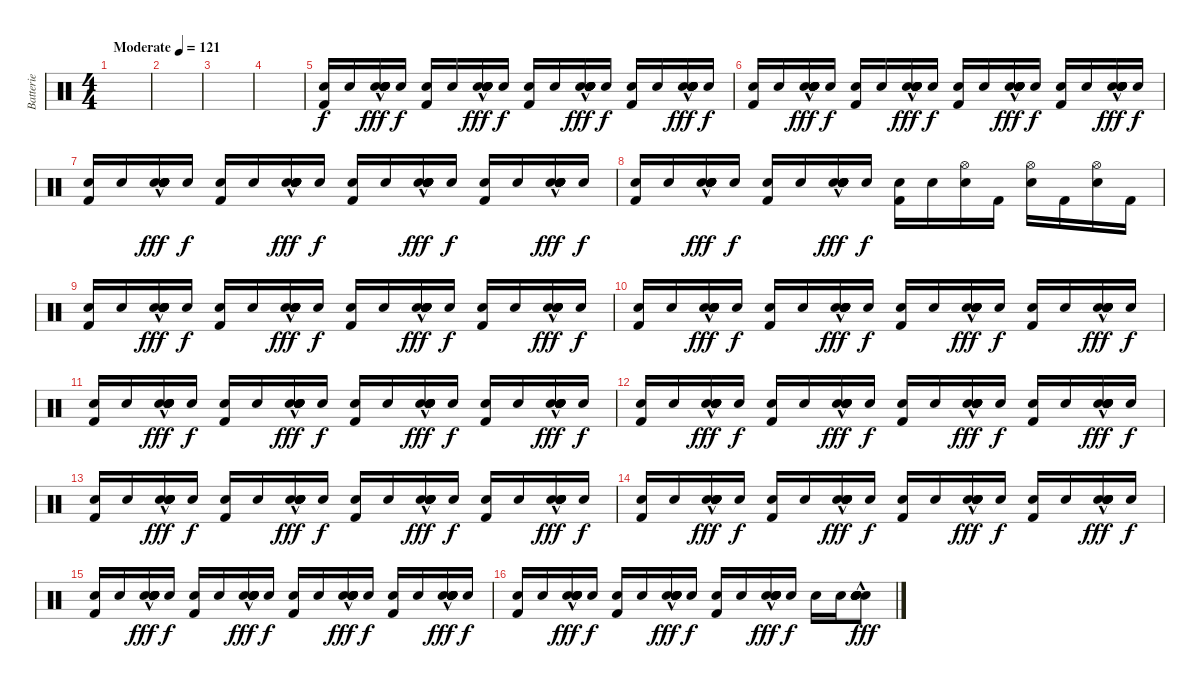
\track ("Batterie" "Batterie") {instrument percussion}
\staff {score}
\articulation defaults
\ts (4 4)
\tempo (121 "Moderate")
\clef neutral
\ks c
|
|
|
|
("Kick (hit) 2" "Electric Snare (hit)").16 "Electric Snare (hit)".16 ("Electric Snare (hit)"{hac} "Electric Snare (hit)"{hac} "Electric Snare (hit)"{hac} "Electric Snare (hit)"{hac} "Electric Snare (hit)"{hac} "Electric Snare (hit)"{hac}).16{dy fff} "Electric Snare (hit)".16{dy f} ("Kick (hit) 2" "Electric Snare (hit)").16 "Electric Snare (hit)".16 ("Electric Snare (hit)"{hac} "Electric Snare (hit)"{hac} "Electric Snare (hit)"{hac} "Electric Snare (hit)"{hac} "Electric Snare (hit)"{hac} "Electric Snare (hit)"{hac}).16{dy fff} "Electric Snare (hit)".16{dy f} ("Kick (hit) 2" "Electric Snare (hit)").16 "Electric Snare (hit)".16 ("Electric Snare (hit)"{hac} "Electric Snare (hit)"{hac} "Electric Snare (hit)"{hac} "Electric Snare (hit)"{hac} "Electric Snare (hit)"{hac} "Electric Snare (hit)"{hac}).16{dy fff} "Electric Snare (hit)".16{dy f} ("Kick (hit) 2" "Electric Snare (hit)").16 "Electric Snare (hit)".16 ("Electric Snare (hit)"{hac} "Electric Snare (hit)"{hac} "Electric Snare (hit)"{hac} "Electric Snare (hit)"{hac} "Electric Snare (hit)"{hac} "Electric Snare (hit)"{hac}).16{dy fff} "Electric Snare (hit)".16{dy f} |
("Kick (hit) 2" "Electric Snare (hit)").16 "Electric Snare (hit)".16 ("Electric Snare (hit)"{hac} "Electric Snare (hit)"{hac} "Electric Snare (hit)"{hac} "Electric Snare (hit)"{hac} "Electric Snare (hit)"{hac} "Electric Snare (hit)"{hac}).16{dy fff} "Electric Snare (hit)".16{dy f} ("Kick (hit) 2" "Electric Snare (hit)").16 "Electric Snare (hit)".16 ("Electric Snare (hit)"{hac} "Electric Snare (hit)"{hac} "Electric Snare (hit)"{hac} "Electric Snare (hit)"{hac} "Electric Snare (hit)"{hac} "Electric Snare (hit)"{hac}).16{dy fff} "Electric Snare (hit)".16{dy f} ("Kick (hit) 2" "Electric Snare (hit)").16 "Electric Snare (hit)".16 ("Electric Snare (hit)"{hac} "Electric Snare (hit)"{hac} "Electric Snare (hit)"{hac} "Electric Snare (hit)"{hac} "Electric Snare (hit)"{hac} "Electric Snare (hit)"{hac}).16{dy fff} "Electric Snare (hit)".16{dy f} ("Kick (hit) 2" "Electric Snare (hit)").16 "Electric Snare (hit)".16 ("Electric Snare (hit)"{hac} "Electric Snare (hit)"{hac} "Electric Snare (hit)"{hac} "Electric Snare (hit)"{hac} "Electric Snare (hit)"{hac} "Electric Snare (hit)"{hac}).16{dy fff} "Electric Snare (hit)".16{dy f} |
("Kick (hit) 2" "Electric Snare (hit)").16 "Electric Snare (hit)".16 ("Electric Snare (hit)"{hac} "Electric Snare (hit)"{hac} "Electric Snare (hit)"{hac} "Electric Snare (hit)"{hac} "Electric Snare (hit)"{hac} "Electric Snare (hit)"{hac}).16{dy fff} "Electric Snare (hit)".16{dy f} ("Kick (hit) 2" "Electric Snare (hit)").16 "Electric Snare (hit)".16 ("Electric Snare (hit)"{hac} "Electric Snare (hit)"{hac} "Electric Snare (hit)"{hac} "Electric Snare (hit)"{hac} "Electric Snare (hit)"{hac} "Electric Snare (hit)"{hac}).16{dy fff} "Electric Snare (hit)".16{dy f} ("Kick (hit) 2" "Electric Snare (hit)").16 "Electric Snare (hit)".16 ("Electric Snare (hit)"{hac} "Electric Snare (hit)"{hac} "Electric Snare (hit)"{hac} "Electric Snare (hit)"{hac} "Electric Snare (hit)"{hac} "Electric Snare (hit)"{hac}).16{dy fff} "Electric Snare (hit)".16{dy f} ("Kick (hit) 2" "Electric Snare (hit)").16 "Electric Snare (hit)".16 ("Electric Snare (hit)"{hac} "Electric Snare (hit)"{hac} "Electric Snare (hit)"{hac} "Electric Snare (hit)"{hac} "Electric Snare (hit)"{hac} "Electric Snare (hit)"{hac}).16{dy fff} "Electric Snare (hit)".16{dy f} |
("Kick (hit) 2" "Electric Snare (hit)").16 "Electric Snare (hit)".16 ("Electric Snare (hit)"{hac} "Electric Snare (hit)"{hac} "Electric Snare (hit)"{hac} "Electric Snare (hit)"{hac} "Electric Snare (hit)"{hac} "Electric Snare (hit)"{hac}).16{dy fff} "Electric Snare (hit)".16{dy f} ("Kick (hit) 2" "Electric Snare (hit)").16 "Electric Snare (hit)".16 ("Electric Snare (hit)"{hac} "Electric Snare (hit)"{hac} "Electric Snare (hit)"{hac} "Electric Snare (hit)"{hac} "Electric Snare (hit)"{hac} "Electric Snare (hit)"{hac}).16{dy fff} "Electric Snare (hit)".16{dy f} ("Kick (hit) 2" "Electric Snare (hit)").16 "Electric Snare (hit)".16 ("Hi-Hat (open)" "Electric Snare (hit)").16 "Kick (hit) 2".16 ("Hi-Hat (open)" "Electric Snare (hit)").16 "Kick (hit) 2".16 ("Hi-Hat (open)" "Electric Snare (hit)").16 "Kick (hit) 2".16 |
("Kick (hit) 2" "Electric Snare (hit)").16 "Electric Snare (hit)".16 ("Electric Snare (hit)"{hac} "Electric Snare (hit)"{hac} "Electric Snare (hit)"{hac} "Electric Snare (hit)"{hac} "Electric Snare (hit)"{hac} "Electric Snare (hit)"{hac}).16{dy fff} "Electric Snare (hit)".16{dy f} ("Kick (hit) 2" "Electric Snare (hit)").16 "Electric Snare (hit)".16 ("Electric Snare (hit)"{hac} "Electric Snare (hit)"{hac} "Electric Snare (hit)"{hac} "Electric Snare (hit)"{hac} "Electric Snare (hit)"{hac} "Electric Snare (hit)"{hac}).16{dy fff} "Electric Snare (hit)".16{dy f} ("Kick (hit) 2" "Electric Snare (hit)").16 "Electric Snare (hit)".16 ("Electric Snare (hit)"{hac} "Electric Snare (hit)"{hac} "Electric Snare (hit)"{hac} "Electric Snare (hit)"{hac} "Electric Snare (hit)"{hac} "Electric Snare (hit)"{hac}).16{dy fff} "Electric Snare (hit)".16{dy f} ("Kick (hit) 2" "Electric Snare (hit)").16 "Electric Snare (hit)".16 ("Electric Snare (hit)"{hac} "Electric Snare (hit)"{hac} "Electric Snare (hit)"{hac} "Electric Snare (hit)"{hac} "Electric Snare (hit)"{hac} "Electric Snare (hit)"{hac}).16{dy fff} "Electric Snare (hit)".16{dy f} |
("Kick (hit) 2" "Electric Snare (hit)").16 "Electric Snare (hit)".16 ("Electric Snare (hit)"{hac} "Electric Snare (hit)"{hac} "Electric Snare (hit)"{hac} "Electric Snare (hit)"{hac} "Electric Snare (hit)"{hac} "Electric Snare (hit)"{hac}).16{dy fff} "Electric Snare (hit)".16{dy f} ("Kick (hit) 2" "Electric Snare (hit)").16 "Electric Snare (hit)".16 ("Electric Snare (hit)"{hac} "Electric Snare (hit)"{hac} "Electric Snare (hit)"{hac} "Electric Snare (hit)"{hac} "Electric Snare (hit)"{hac} "Electric Snare (hit)"{hac}).16{dy fff} "Electric Snare (hit)".16{dy f} ("Kick (hit) 2" "Electric Snare (hit)").16 "Electric Snare (hit)".16 ("Electric Snare (hit)"{hac} "Electric Snare (hit)"{hac} "Electric Snare (hit)"{hac} "Electric Snare (hit)"{hac} "Electric Snare (hit)"{hac} "Electric Snare (hit)"{hac}).16{dy fff} "Electric Snare (hit)".16{dy f} ("Kick (hit) 2" "Electric Snare (hit)").16 "Electric Snare (hit)".16 ("Electric Snare (hit)"{hac} "Electric Snare (hit)"{hac} "Electric Snare (hit)"{hac} "Electric Snare (hit)"{hac} "Electric Snare (hit)"{hac} "Electric Snare (hit)"{hac}).16{dy fff} "Electric Snare (hit)".16{dy f} |
("Kick (hit) 2" "Electric Snare (hit)").16 "Electric Snare (hit)".16 ("Electric Snare (hit)"{hac} "Electric Snare (hit)"{hac} "Electric Snare (hit)"{hac} "Electric Snare (hit)"{hac} "Electric Snare (hit)"{hac} "Electric Snare (hit)"{hac}).16{dy fff} "Electric Snare (hit)".16{dy f} ("Kick (hit) 2" "Electric Snare (hit)").16 "Electric Snare (hit)".16 ("Electric Snare (hit)"{hac} "Electric Snare (hit)"{hac} "Electric Snare (hit)"{hac} "Electric Snare (hit)"{hac} "Electric Snare (hit)"{hac} "Electric Snare (hit)"{hac}).16{dy fff} "Electric Snare (hit)".16{dy f} ("Kick (hit) 2" "Electric Snare (hit)").16 "Electric Snare (hit)".16 ("Electric Snare (hit)"{hac} "Electric Snare (hit)"{hac} "Electric Snare (hit)"{hac} "Electric Snare (hit)"{hac} "Electric Snare (hit)"{hac} "Electric Snare (hit)"{hac}).16{dy fff} "Electric Snare (hit)".16{dy f} ("Kick (hit) 2" "Electric Snare (hit)").16 "Electric Snare (hit)".16 ("Electric Snare (hit)"{hac} "Electric Snare (hit)"{hac} "Electric Snare (hit)"{hac} "Electric Snare (hit)"{hac} "Electric Snare (hit)"{hac} "Electric Snare (hit)"{hac}).16{dy fff} "Electric Snare (hit)".16{dy f} |
("Kick (hit) 2" "Electric Snare (hit)").16 "Electric Snare (hit)".16 ("Electric Snare (hit)"{hac} "Electric Snare (hit)"{hac} "Electric Snare (hit)"{hac} "Electric Snare (hit)"{hac} "Electric Snare (hit)"{hac} "Electric Snare (hit)"{hac}).16{dy fff} "Electric Snare (hit)".16{dy f} ("Kick (hit) 2" "Electric Snare (hit)").16 "Electric Snare (hit)".16 ("Electric Snare (hit)"{hac} "Electric Snare (hit)"{hac} "Electric Snare (hit)"{hac} "Electric Snare (hit)"{hac} "Electric Snare (hit)"{hac} "Electric Snare (hit)"{hac}).16{dy fff} "Electric Snare (hit)".16{dy f} ("Kick (hit) 2" "Electric Snare (hit)").16 "Electric Snare (hit)".16 ("Electric Snare (hit)"{hac} "Electric Snare (hit)"{hac} "Electric Snare (hit)"{hac} "Electric Snare (hit)"{hac} "Electric Snare (hit)"{hac} "Electric Snare (hit)"{hac}).16{dy fff} "Electric Snare (hit)".16{dy f} ("Kick (hit) 2" "Electric Snare (hit)").16 "Electric Snare (hit)".16 ("Electric Snare (hit)"{hac} "Electric Snare (hit)"{hac} "Electric Snare (hit)"{hac} "Electric Snare (hit)"{hac} "Electric Snare (hit)"{hac} "Electric Snare (hit)"{hac}).16{dy fff} "Electric Snare (hit)".16{dy f} |
("Kick (hit) 2" "Electric Snare (hit)").16 "Electric Snare (hit)".16 ("Electric Snare (hit)"{hac} "Electric Snare (hit)"{hac} "Electric Snare (hit)"{hac} "Electric Snare (hit)"{hac} "Electric Snare (hit)"{hac} "Electric Snare (hit)"{hac}).16{dy fff} "Electric Snare (hit)".16{dy f} ("Kick (hit) 2" "Electric Snare (hit)").16 "Electric Snare (hit)".16 ("Electric Snare (hit)"{hac} "Electric Snare (hit)"{hac} "Electric Snare (hit)"{hac} "Electric Snare (hit)"{hac} "Electric Snare (hit)"{hac} "Electric Snare (hit)"{hac}).16{dy fff} "Electric Snare (hit)".16{dy f} ("Kick (hit) 2" "Electric Snare (hit)").16 "Electric Snare (hit)".16 ("Electric Snare (hit)"{hac} "Electric Snare (hit)"{hac} "Electric Snare (hit)"{hac} "Electric Snare (hit)"{hac} "Electric Snare (hit)"{hac} "Electric Snare (hit)"{hac}).16{dy fff} "Electric Snare (hit)".16{dy f} ("Kick (hit) 2" "Electric Snare (hit)").16 "Electric Snare (hit)".16 ("Electric Snare (hit)"{hac} "Electric Snare (hit)"{hac} "Electric Snare (hit)"{hac} "Electric Snare (hit)"{hac} "Electric Snare (hit)"{hac} "Electric Snare (hit)"{hac}).16{dy fff} "Electric Snare (hit)".16{dy f} |
("Kick (hit) 2" "Electric Snare (hit)").16 "Electric Snare (hit)".16 ("Electric Snare (hit)"{hac} "Electric Snare (hit)"{hac} "Electric Snare (hit)"{hac} "Electric Snare (hit)"{hac} "Electric Snare (hit)"{hac} "Electric Snare (hit)"{hac}).16{dy fff} "Electric Snare (hit)".16{dy f} ("Kick (hit) 2" "Electric Snare (hit)").16 "Electric Snare (hit)".16 ("Electric Snare (hit)"{hac} "Electric Snare (hit)"{hac} "Electric Snare (hit)"{hac} "Electric Snare (hit)"{hac} "Electric Snare (hit)"{hac} "Electric Snare (hit)"{hac}).16{dy fff} "Electric Snare (hit)".16{dy f} ("Kick (hit) 2" "Electric Snare (hit)").16 "Electric Snare (hit)".16 ("Electric Snare (hit)"{hac} "Electric Snare (hit)"{hac} "Electric Snare (hit)"{hac} "Electric Snare (hit)"{hac} "Electric Snare (hit)"{hac} "Electric Snare (hit)"{hac}).16{dy fff} "Electric Snare (hit)".16{dy f} ("Kick (hit) 2" "Electric Snare (hit)").16 "Electric Snare (hit)".16 ("Electric Snare (hit)"{hac} "Electric Snare (hit)"{hac} "Electric Snare (hit)"{hac} "Electric Snare (hit)"{hac} "Electric Snare (hit)"{hac} "Electric Snare (hit)"{hac}).16{dy fff} "Electric Snare (hit)".16{dy f} |
("Kick (hit) 2" "Electric Snare (hit)").16 "Electric Snare (hit)".16 ("Electric Snare (hit)"{hac} "Electric Snare (hit)"{hac} "Electric Snare (hit)"{hac} "Electric Snare (hit)"{hac} "Electric Snare (hit)"{hac} "Electric Snare (hit)"{hac}).16{dy fff} "Electric Snare (hit)".16{dy f} ("Kick (hit) 2" "Electric Snare (hit)").16 "Electric Snare (hit)".16 ("Electric Snare (hit)"{hac} "Electric Snare (hit)"{hac} "Electric Snare (hit)"{hac} "Electric Snare (hit)"{hac} "Electric Snare (hit)"{hac} "Electric Snare (hit)"{hac}).16{dy fff} "Electric Snare (hit)".16{dy f} ("Kick (hit) 2" "Electric Snare (hit)").16 "Electric Snare (hit)".16 ("Electric Snare (hit)"{hac} "Electric Snare (hit)"{hac} "Electric Snare (hit)"{hac} "Electric Snare (hit)"{hac} "Electric Snare (hit)"{hac} "Electric Snare (hit)"{hac}).16{dy fff} "Electric Snare (hit)".16{dy f} ("Kick (hit) 2" "Electric Snare (hit)").16 "Electric Snare (hit)".16 ("Electric Snare (hit)"{hac} "Electric Snare (hit)"{hac} "Electric Snare (hit)"{hac} "Electric Snare (hit)"{hac} "Electric Snare (hit)"{hac} "Electric Snare (hit)"{hac}).16{dy fff} "Electric Snare (hit)".16{dy f} |
("Kick (hit) 2" "Electric Snare (hit)").16 "Electric Snare (hit)".16 ("Electric Snare (hit)"{hac} "Electric Snare (hit)"{hac} "Electric Snare (hit)"{hac} "Electric Snare (hit)"{hac} "Electric Snare (hit)"{hac} "Electric Snare (hit)"{hac}).16{dy fff} "Electric Snare (hit)".16{dy f} ("Kick (hit) 2" "Electric Snare (hit)").16 "Electric Snare (hit)".16 ("Electric Snare (hit)"{hac} "Electric Snare (hit)"{hac} "Electric Snare (hit)"{hac} "Electric Snare (hit)"{hac} "Electric Snare (hit)"{hac} "Electric Snare (hit)"{hac}).16{dy fff} "Electric Snare (hit)".16{dy f} ("Kick (hit) 2" "Electric Snare (hit)").16 "Electric Snare (hit)".16 ("Electric Snare (hit)"{hac} "Electric Snare (hit)"{hac} "Electric Snare (hit)"{hac} "Electric Snare (hit)"{hac} "Electric Snare (hit)"{hac} "Electric Snare (hit)"{hac}).16{dy fff} "Electric Snare (hit)".16{dy f} "Electric Snare (hit)".16 "Electric Snare (hit)".16 ("Electric Snare (hit)"{hac} "Electric Snare (hit)"{hac} "Electric Snare (hit)"{hac} "Electric Snare (hit)"{hac} "Electric Snare (hit)"{hac} "Electric Snare (hit)"{hac}).8{dy fff}
